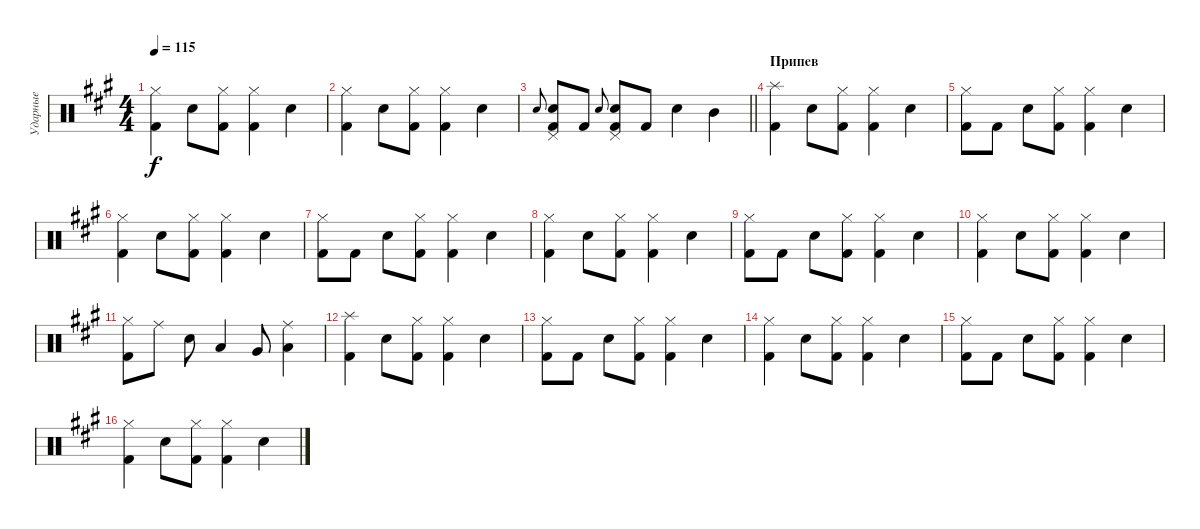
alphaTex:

\track ("Ударные" "Ударные") {instrument percussion}
\staff {score}
\articulation defaults
\ts (4 4)
\tempo 115
\clef neutral
\ks f#minor
("Hi-Hat (closed)" "Kick (hit) 2").4{dy f} "Snare (hit) 2".8 ("Hi-Hat (closed)" "Kick (hit) 2").8{volume 12} ("Hi-Hat (closed)" "Kick (hit) 2").4{volume 11} "Snare (hit) 2".4 |
("Hi-Hat (closed)" "Kick (hit) 2").4 "Snare (hit) 2".8 ("Hi-Hat (closed)" "Kick (hit) 2").8{volume 12} ("Hi-Hat (closed)" "Kick (hit) 2").4{volume 11} "Snare (hit) 2".4 |
\barLineRight lightlight "Electric Snare (hit)".8{gr onbeat}
("Pedal Hi-Hat (hit)" "Kick (hit) 2" "Electric Snare (hit)").8{volume 16} "Kick (hit) 2".8{volume 16} "Electric Snare (hit)".8{gr onbeat} ("Pedal Hi-Hat (hit)" "Kick (hit) 2" "Electric Snare (hit)").8 "Kick (hit) 2".8 "Electric Snare (hit)".4 "Mid Tom (hit)".4 |
\section ("" "Припев")
("Splash (hit)" "Kick (hit) 2").4 "Snare (hit) 2".8 ("Hi-Hat (closed)" "Kick (hit) 2").8{volume 12} ("Hi-Hat (closed)" "Kick (hit) 2").4{volume 11} "Snare (hit) 2".4 |
("Hi-Hat (closed)" "Kick (hit) 2").8 "Kick (hit) 2".8 "Snare (hit) 2".8 ("Hi-Hat (closed)" "Kick (hit) 2").8{volume 12} ("Hi-Hat (closed)" "Kick (hit) 2").4{volume 11} "Snare (hit) 2".4 |
("Hi-Hat (closed)" "Kick (hit) 2").4 "Snare (hit) 2".8 ("Hi-Hat (closed)" "Kick (hit) 2").8{volume 12} ("Hi-Hat (closed)" "Kick (hit) 2").4{volume 11} "Snare (hit) 2".4 |
("Hi-Hat (closed)" "Kick (hit) 2").8 "Kick (hit) 2".8 "Snare (hit) 2".8 ("Hi-Hat (closed)" "Kick (hit) 2").8{volume 12} ("Hi-Hat (closed)" "Kick (hit) 2").4{volume 11} "Snare (hit) 2".4 |
("Hi-Hat (closed)" "Kick (hit) 2").4 "Snare (hit) 2".8 ("Hi-Hat (closed)" "Kick (hit) 2").8{volume 12} ("Hi-Hat (closed)" "Kick (hit) 2").4{volume 11} "Snare (hit) 2".4 |
("Hi-Hat (closed)" "Kick (hit) 2").8 "Kick (hit) 2".8 "Snare (hit) 2".8 ("Hi-Hat (closed)" "Kick (hit) 2").8{volume 12} ("Hi-Hat (closed)" "Kick (hit) 2").4{volume 11} "Snare (hit) 2".4 |
("Hi-Hat (closed)" "Kick (hit) 2").4 "Snare (hit) 2".8 ("Hi-Hat (closed)" "Kick (hit) 2").8{volume 12} ("Hi-Hat (closed)" "Kick (hit) 2").4{volume 11} "Snare (hit) 2".4 |
("Hi-Hat (closed)" "Kick (hit) 2").8 "Ride (middle)".8 "Snare (hit) 2".8 "Low Tom (hit)".4{volume 12} "Very Low Tom (hit)".8{volume 11} ("Ride (middle)" "Low Floor Tom (hit)").4 |
("Splash (hit)" "Kick (hit) 2").4 "Snare (hit) 2".8 ("Hi-Hat (closed)" "Kick (hit) 2").8{volume 12} ("Hi-Hat (closed)" "Kick (hit) 2").4{volume 11} "Snare (hit) 2".4 |
("Hi-Hat (closed)" "Kick (hit) 2").8 "Kick (hit) 2".8 "Snare (hit) 2".8 ("Hi-Hat (closed)" "Kick (hit) 2").8{volume 12} ("Hi-Hat (closed)" "Kick (hit) 2").4{volume 11} "Snare (hit) 2".4 |
("Hi-Hat (closed)" "Kick (hit) 2").4 "Snare (hit) 2".8 ("Hi-Hat (closed)" "Kick (hit) 2").8{volume 12} ("Hi-Hat (closed)" "Kick (hit) 2").4{volume 11} "Snare (hit) 2".4 |
("Hi-Hat (closed)" "Kick (hit) 2").8 "Kick (hit) 2".8 "Snare (hit) 2".8 ("Hi-Hat (closed)" "Kick (hit) 2").8{volume 12} ("Hi-Hat (closed)" "Kick (hit) 2").4{volume 11} "Snare (hit) 2".4 |
("Hi-Hat (closed)" "Kick (hit) 2").4 "Snare (hit) 2".8 ("Hi-Hat (closed)" "Kick (hit) 2").8{volume 12} ("Hi-Hat (closed)" "Kick (hit) 2").4{volume 11} "Snare (hit) 2".4
